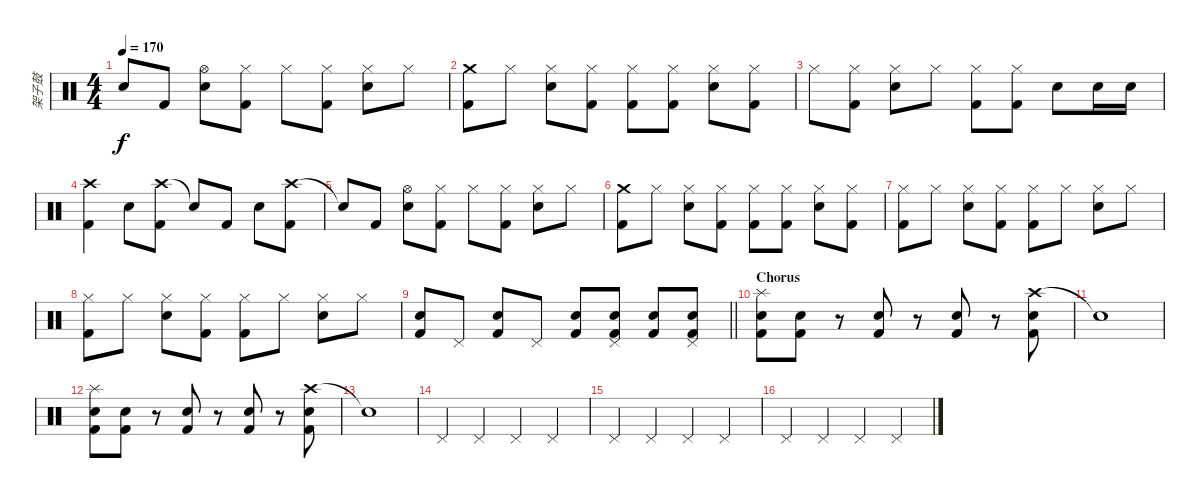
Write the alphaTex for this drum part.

\track ("架子鼓" "架子鼓") {instrument percussion}
\staff {score}
\articulation defaults
\ts (4 4)
\tempo 170
\clef neutral
\ks c "Snare (hit)"{t}.8{dy f} "Kick (hit) 2".8
("Hi-Hat (open)" "Snare (hit) 2").8 ("Hi-Hat (closed)" "Kick (hit) 2").8 "Hi-Hat (closed)".8 ("Hi-Hat (closed)" "Kick (hit) 2").8 ("Hi-Hat (closed)" "Snare (hit) 2").8 "Hi-Hat (closed)".8 |
("Crash medium (hit)" "Kick (hit) 2").8 "Hi-Hat (closed)".8 ("Hi-Hat (closed)" "Snare (hit) 2").8 ("Hi-Hat (closed)" "Kick (hit) 2").8 ("Hi-Hat (closed)" "Kick (hit) 2").8 ("Hi-Hat (closed)" "Kick (hit) 2").8 ("Hi-Hat (closed)" "Snare (hit) 2").8 ("Hi-Hat (closed)" "Kick (hit) 2").8 |
"Hi-Hat (closed)".8 ("Hi-Hat (closed)" "Kick (hit) 2").8 ("Hi-Hat (closed)" "Snare (hit) 2").8 "Hi-Hat (closed)".8 ("Hi-Hat (closed)" "Kick (hit) 2").8 ("Hi-Hat (closed)" "Kick (hit) 2").8 "Snare (hit) 2".8 "Snare (hit) 2".16 "Snare (hit) 2".16 |
("Crash high (hit)" "Kick (hit) 2").4 "Snare (hit) 2".8 ("Crash high (hit)" "Kick (hit) 2").8 "Snare (hit)"{t}.8 "Kick (hit) 2".8 "Snare (hit) 2".8 ("Crash high (hit)" "Kick (hit) 2").8 |
"Snare (hit)"{t}.8 "Kick (hit) 2".8 ("Hi-Hat (open)" "Snare (hit) 2").8 ("Hi-Hat (closed)" "Kick (hit) 2").8 "Hi-Hat (closed)".8 ("Hi-Hat (closed)" "Kick (hit) 2").8 ("Hi-Hat (closed)" "Snare (hit) 2").8 "Hi-Hat (closed)".8 |
("Crash medium (hit)" "Kick (hit) 2").8 "Hi-Hat (closed)".8 ("Hi-Hat (closed)" "Snare (hit) 2").8 ("Hi-Hat (closed)" "Kick (hit) 2").8 ("Hi-Hat (closed)" "Kick (hit) 2").8 ("Hi-Hat (closed)" "Kick (hit) 2").8 ("Hi-Hat (closed)" "Snare (hit) 2").8 ("Hi-Hat (closed)" "Kick (hit) 2").8 |
("Hi-Hat (closed)" "Kick (hit) 2").8 "Hi-Hat (closed)".8 ("Hi-Hat (closed)" "Snare (hit) 2").8 ("Hi-Hat (closed)" "Kick (hit) 2").8 ("Hi-Hat (closed)" "Kick (hit) 2").8 "Hi-Hat (closed)".8 ("Hi-Hat (closed)" "Snare (hit) 2").8 "Hi-Hat (closed)".8 |
("Hi-Hat (closed)" "Kick (hit) 2").8 "Hi-Hat (closed)".8 ("Hi-Hat (closed)" "Snare (hit) 2").8 ("Hi-Hat (closed)" "Kick (hit) 2").8 ("Hi-Hat (closed)" "Kick (hit) 2").8 "Hi-Hat (closed)".8 ("Hi-Hat (closed)" "Snare (hit) 2").8 "Hi-Hat (closed)".8 |
\barLineRight lightlight
("Snare (hit) 2" "Kick (hit) 2").8 "Pedal Hi-Hat (hit)".8 ("Snare (hit) 2" "Kick (hit) 2").8 "Pedal Hi-Hat (hit)".8 ("Snare (hit) 2" "Kick (hit) 2").8 ("Snare (hit) 2" "Pedal Hi-Hat (hit)" "Kick (hit) 2").8 ("Snare (hit) 2" "Kick (hit) 2").8 ("Snare (hit) 2" "Pedal Hi-Hat (hit)" "Kick (hit) 2").8 |
\section ("" "Chorus")
("Splash (hit)" "Snare (hit) 2" "Kick (hit) 2").8 ("Snare (hit) 2" "Kick (hit) 2").8 r.8 ("Snare (hit) 2" "Kick (hit) 2").8 r.8 ("Snare (hit) 2" "Kick (hit) 2").8 r.8 ("Crash high (hit)" "Snare (hit) 2" "Kick (hit) 2").8 |
"Snare (hit)"{t}.1 |
("Splash (hit)" "Snare (hit) 2" "Kick (hit) 2").8 ("Snare (hit) 2" "Kick (hit) 2").8 r.8 ("Snare (hit) 2" "Kick (hit) 2").8 r.8 ("Snare (hit) 2" "Kick (hit) 2").8 r.8 ("Crash high (hit)" "Snare (hit) 2" "Kick (hit) 2").8 |
"Snare (hit)"{t}.1 |
"Pedal Hi-Hat (hit)".4 "Pedal Hi-Hat (hit)".4 "Pedal Hi-Hat (hit)".4 "Pedal Hi-Hat (hit)".4 |
"Pedal Hi-Hat (hit)".4 "Pedal Hi-Hat (hit)".4 "Pedal Hi-Hat (hit)".4 "Pedal Hi-Hat (hit)".4 |
"Pedal Hi-Hat (hit)".4 "Pedal Hi-Hat (hit)".4 "Pedal Hi-Hat (hit)".4 "Pedal Hi-Hat (hit)".4
